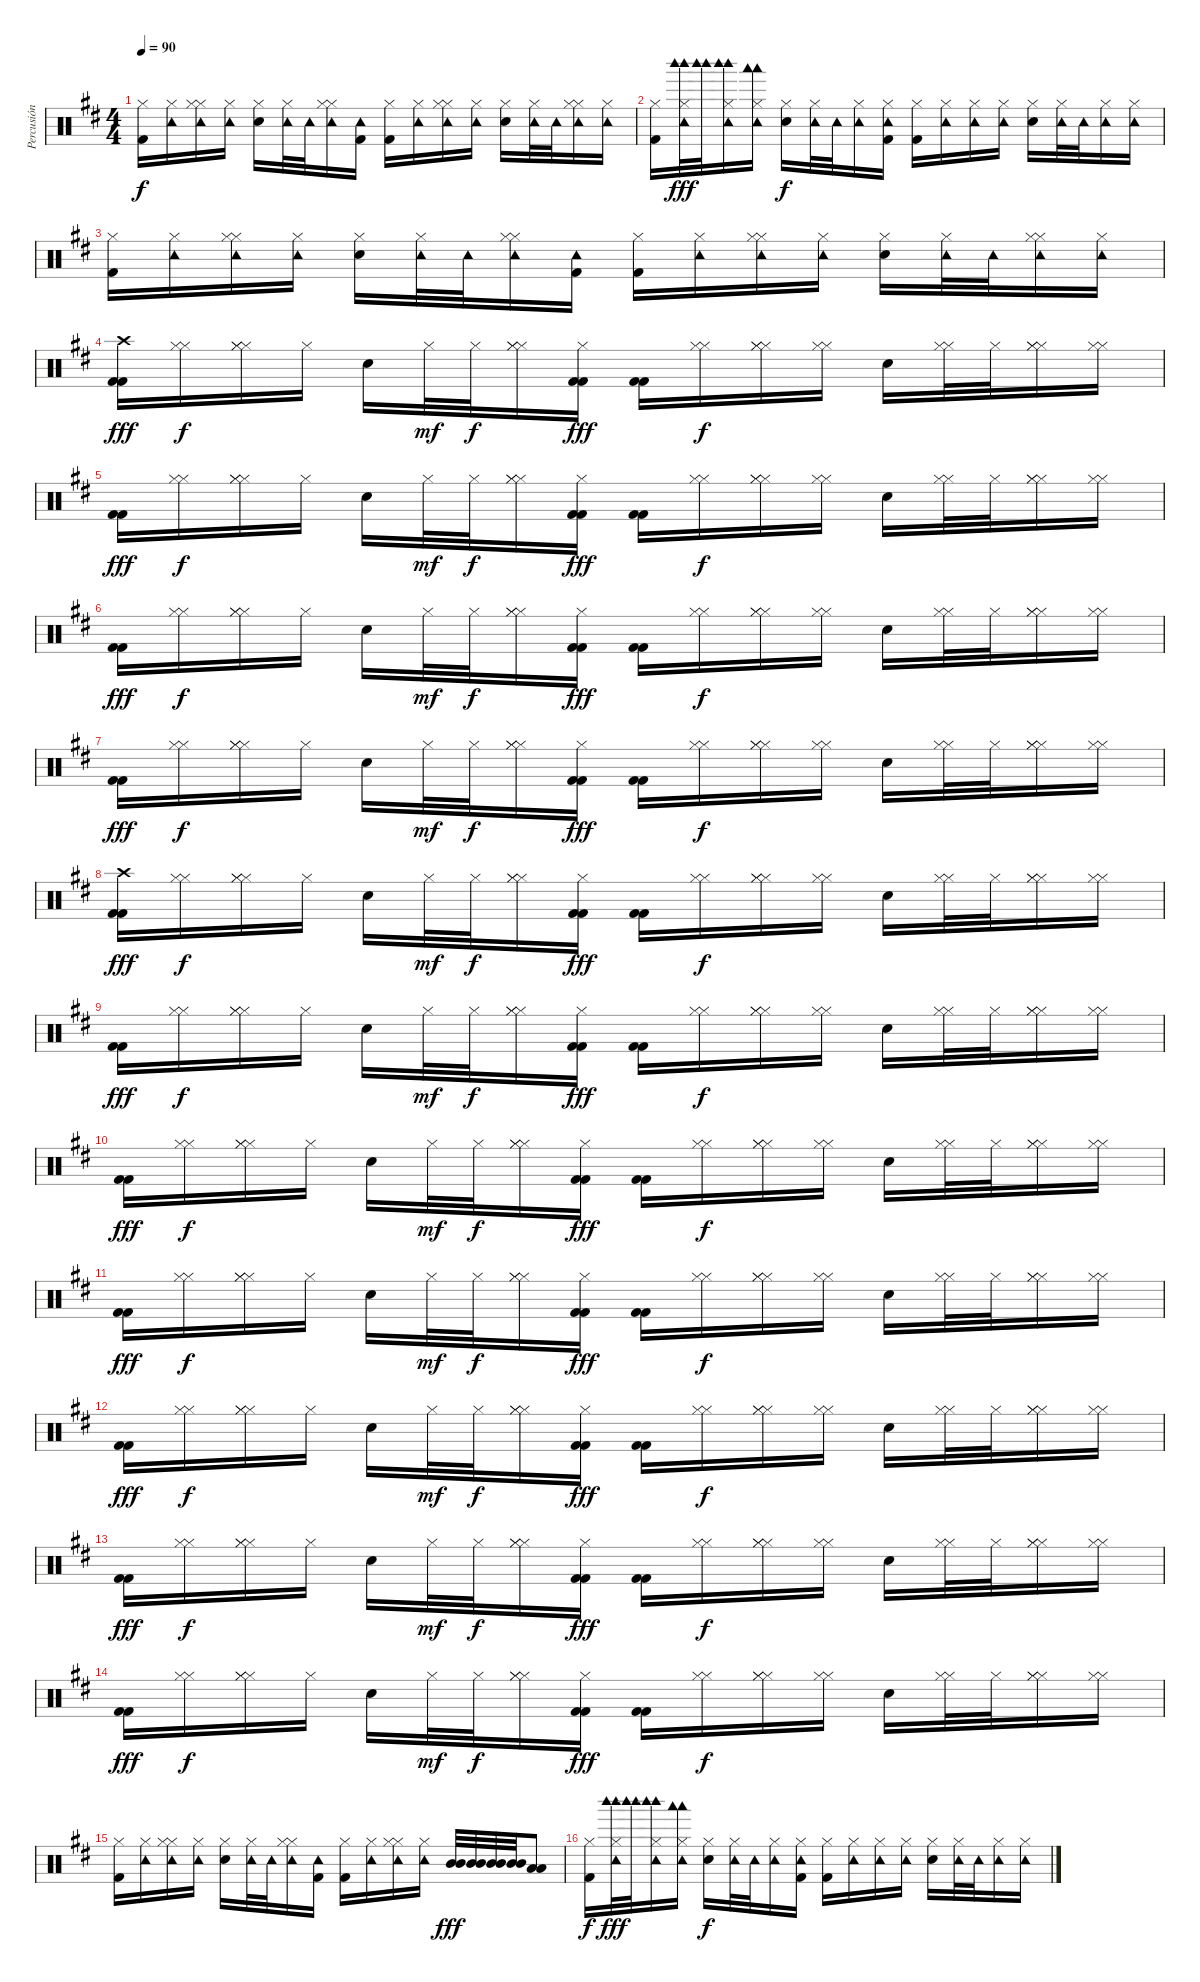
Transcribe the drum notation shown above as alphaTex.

\track ("Percusión" "Percusión") {instrument percussion}
\staff
\articulation defaults
\ts (4 4)
\tempo 90
\clef neutral
\ks bminor
("Kick (hit) 2" "Hi-Hat (closed)").16{dy f} ("Tambourine (hit)" "Hi-Hat (closed)").16 ("Hi-Hat (closed)" "Tambourine (hit)" "Hi-Hat (closed)").16 ("Tambourine (hit)" "Hi-Hat (closed)").16 ("Electric Snare (hit)" "Hi-Hat (closed)").16 ("Tambourine (hit)" "Hi-Hat (closed)").32 "Tambourine (hit)".32 ("Hi-Hat (closed)" "Tambourine (hit)" "Hi-Hat (closed)").16 ("Kick (hit) 2" "Tambourine (hit)").16 ("Kick (hit) 2" "Hi-Hat (closed)").16 ("Tambourine (hit)" "Hi-Hat (closed)").16 ("Hi-Hat (closed)" "Tambourine (hit)" "Hi-Hat (closed)").16 ("Tambourine (hit)" "Hi-Hat (closed)").16 ("Electric Snare (hit)" "Hi-Hat (closed)").16 ("Tambourine (hit)" "Hi-Hat (closed)").32 "Tambourine (hit)".32 ("Hi-Hat (closed)" "Tambourine (hit)" "Hi-Hat (closed)").16 ("Tambourine (hit)" "Hi-Hat (closed)").16 |
("Kick (hit) 2" "Hi-Hat (closed)").16 ("Hi-Hat (closed)" "Tambourine (hit)" "Woodblock high (hit)" "Woodblock high (hit)").32{dy fff} ("Woodblock high (hit)" "Woodblock high (hit)").32 ("Hi-Hat (closed)" "Tambourine (hit)" "Woodblock high (hit)" "Woodblock high (hit)").16 ("Hi-Hat (closed)" "Tambourine (hit)" "Woodblock low (hit)" "Woodblock low (hit)").16 ("Electric Snare (hit)" "Hi-Hat (closed)").16{dy f} ("Hi-Hat (closed)" "Tambourine (hit)").32 "Tambourine (hit)".32 ("Hi-Hat (closed)" "Tambourine (hit)").16 ("Kick (hit) 2" "Hi-Hat (closed)" "Tambourine (hit)").16 ("Kick (hit) 2" "Hi-Hat (closed)").16 ("Hi-Hat (closed)" "Tambourine (hit)").16 ("Hi-Hat (closed)" "Tambourine (hit)").16 ("Hi-Hat (closed)" "Tambourine (hit)").16 ("Electric Snare (hit)" "Hi-Hat (closed)").16 ("Hi-Hat (closed)" "Tambourine (hit)").32 "Tambourine (hit)".32 ("Hi-Hat (closed)" "Tambourine (hit)").16 ("Hi-Hat (closed)" "Tambourine (hit)").16 |
("Kick (hit) 2" "Hi-Hat (closed)").16 ("Tambourine (hit)" "Hi-Hat (closed)").16 ("Hi-Hat (closed)" "Tambourine (hit)" "Hi-Hat (closed)").16 ("Tambourine (hit)" "Hi-Hat (closed)").16 ("Electric Snare (hit)" "Hi-Hat (closed)").16 ("Tambourine (hit)" "Hi-Hat (closed)").32 "Tambourine (hit)".32 ("Hi-Hat (closed)" "Tambourine (hit)" "Hi-Hat (closed)").16 ("Kick (hit) 2" "Tambourine (hit)").16 ("Kick (hit) 2" "Hi-Hat (closed)").16 ("Tambourine (hit)" "Hi-Hat (closed)").16 ("Hi-Hat (closed)" "Tambourine (hit)" "Hi-Hat (closed)").16 ("Tambourine (hit)" "Hi-Hat (closed)").16 ("Electric Snare (hit)" "Hi-Hat (closed)").16 ("Tambourine (hit)" "Hi-Hat (closed)").32 "Tambourine (hit)".32 ("Hi-Hat (closed)" "Tambourine (hit)" "Hi-Hat (closed)").16 ("Tambourine (hit)" "Hi-Hat (closed)").16 |
("Kick (hit) 2" "Kick (hit) 2" "Crash high (hit)").16{dy fff} ("Hi-Hat (closed)" "Hi-Hat (closed)").16{dy f} ("Hi-Hat (closed)" "Hi-Hat (closed)" "Hi-Hat (closed)").16 "Hi-Hat (closed)".16 "Electric Snare (hit)".16 "Hi-Hat (closed)".32{dy mf} "Hi-Hat (closed)".32{dy f} ("Hi-Hat (closed)" "Hi-Hat (closed)" "Hi-Hat (closed)").16 ("Kick (hit) 2" "Kick (hit) 2" "Hi-Hat (closed)").16{dy fff} ("Kick (hit) 2" "Kick (hit) 2").16 ("Hi-Hat (closed)" "Hi-Hat (closed)").16{dy f} ("Hi-Hat (closed)" "Hi-Hat (closed)" "Hi-Hat (closed)").16 ("Hi-Hat (closed)" "Hi-Hat (closed)").16 "Electric Snare (hit)".16 ("Hi-Hat (closed)" "Hi-Hat (closed)").32 "Hi-Hat (closed)".32 ("Hi-Hat (closed)" "Hi-Hat (closed)" "Hi-Hat (closed)").16 ("Hi-Hat (closed)" "Hi-Hat (closed)").16 |
("Kick (hit) 2" "Kick (hit) 2").16{dy fff} ("Hi-Hat (closed)" "Hi-Hat (closed)").16{dy f} ("Hi-Hat (closed)" "Hi-Hat (closed)" "Hi-Hat (closed)").16 "Hi-Hat (closed)".16 "Electric Snare (hit)".16 "Hi-Hat (closed)".32{dy mf} "Hi-Hat (closed)".32{dy f} ("Hi-Hat (closed)" "Hi-Hat (closed)" "Hi-Hat (closed)").16 ("Kick (hit) 2" "Kick (hit) 2" "Hi-Hat (closed)").16{dy fff} ("Kick (hit) 2" "Kick (hit) 2").16 ("Hi-Hat (closed)" "Hi-Hat (closed)").16{dy f} ("Hi-Hat (closed)" "Hi-Hat (closed)" "Hi-Hat (closed)").16 ("Hi-Hat (closed)" "Hi-Hat (closed)").16 "Electric Snare (hit)".16 ("Hi-Hat (closed)" "Hi-Hat (closed)").32 "Hi-Hat (closed)".32 ("Hi-Hat (closed)" "Hi-Hat (closed)" "Hi-Hat (closed)").16 ("Hi-Hat (closed)" "Hi-Hat (closed)").16 |
("Kick (hit) 2" "Kick (hit) 2").16{dy fff} ("Hi-Hat (closed)" "Hi-Hat (closed)").16{dy f} ("Hi-Hat (closed)" "Hi-Hat (closed)" "Hi-Hat (closed)").16 "Hi-Hat (closed)".16 "Electric Snare (hit)".16 "Hi-Hat (closed)".32{dy mf} "Hi-Hat (closed)".32{dy f} ("Hi-Hat (closed)" "Hi-Hat (closed)" "Hi-Hat (closed)").16 ("Kick (hit) 2" "Kick (hit) 2" "Hi-Hat (closed)").16{dy fff} ("Kick (hit) 2" "Kick (hit) 2").16 ("Hi-Hat (closed)" "Hi-Hat (closed)").16{dy f} ("Hi-Hat (closed)" "Hi-Hat (closed)" "Hi-Hat (closed)").16 ("Hi-Hat (closed)" "Hi-Hat (closed)").16 "Electric Snare (hit)".16 ("Hi-Hat (closed)" "Hi-Hat (closed)").32 "Hi-Hat (closed)".32 ("Hi-Hat (closed)" "Hi-Hat (closed)" "Hi-Hat (closed)").16 ("Hi-Hat (closed)" "Hi-Hat (closed)").16 |
("Kick (hit) 2" "Kick (hit) 2").16{dy fff} ("Hi-Hat (closed)" "Hi-Hat (closed)").16{dy f} ("Hi-Hat (closed)" "Hi-Hat (closed)" "Hi-Hat (closed)").16 "Hi-Hat (closed)".16 "Electric Snare (hit)".16 "Hi-Hat (closed)".32{dy mf} "Hi-Hat (closed)".32{dy f} ("Hi-Hat (closed)" "Hi-Hat (closed)" "Hi-Hat (closed)").16 ("Kick (hit) 2" "Kick (hit) 2" "Hi-Hat (closed)").16{dy fff} ("Kick (hit) 2" "Kick (hit) 2").16 ("Hi-Hat (closed)" "Hi-Hat (closed)").16{dy f} ("Hi-Hat (closed)" "Hi-Hat (closed)" "Hi-Hat (closed)").16 ("Hi-Hat (closed)" "Hi-Hat (closed)").16 "Electric Snare (hit)".16 ("Hi-Hat (closed)" "Hi-Hat (closed)").32 "Hi-Hat (closed)".32 ("Hi-Hat (closed)" "Hi-Hat (closed)" "Hi-Hat (closed)").16 ("Hi-Hat (closed)" "Hi-Hat (closed)").16 |
("Kick (hit) 2" "Kick (hit) 2" "Crash high (hit)").16{dy fff} ("Hi-Hat (closed)" "Hi-Hat (closed)").16{dy f} ("Hi-Hat (closed)" "Hi-Hat (closed)" "Hi-Hat (closed)").16 "Hi-Hat (closed)".16 "Electric Snare (hit)".16 "Hi-Hat (closed)".32{dy mf} "Hi-Hat (closed)".32{dy f} ("Hi-Hat (closed)" "Hi-Hat (closed)" "Hi-Hat (closed)").16 ("Kick (hit) 2" "Kick (hit) 2" "Hi-Hat (closed)").16{dy fff} ("Kick (hit) 2" "Kick (hit) 2").16 ("Hi-Hat (closed)" "Hi-Hat (closed)").16{dy f} ("Hi-Hat (closed)" "Hi-Hat (closed)" "Hi-Hat (closed)").16 ("Hi-Hat (closed)" "Hi-Hat (closed)").16 "Electric Snare (hit)".16 ("Hi-Hat (closed)" "Hi-Hat (closed)").32 "Hi-Hat (closed)".32 ("Hi-Hat (closed)" "Hi-Hat (closed)" "Hi-Hat (closed)").16 ("Hi-Hat (closed)" "Hi-Hat (closed)").16 |
("Kick (hit) 2" "Kick (hit) 2").16{dy fff} ("Hi-Hat (closed)" "Hi-Hat (closed)").16{dy f} ("Hi-Hat (closed)" "Hi-Hat (closed)" "Hi-Hat (closed)").16 "Hi-Hat (closed)".16 "Electric Snare (hit)".16 "Hi-Hat (closed)".32{dy mf} "Hi-Hat (closed)".32{dy f} ("Hi-Hat (closed)" "Hi-Hat (closed)" "Hi-Hat (closed)").16 ("Kick (hit) 2" "Kick (hit) 2" "Hi-Hat (closed)").16{dy fff} ("Kick (hit) 2" "Kick (hit) 2").16 ("Hi-Hat (closed)" "Hi-Hat (closed)").16{dy f} ("Hi-Hat (closed)" "Hi-Hat (closed)" "Hi-Hat (closed)").16 ("Hi-Hat (closed)" "Hi-Hat (closed)").16 "Electric Snare (hit)".16 ("Hi-Hat (closed)" "Hi-Hat (closed)").32 "Hi-Hat (closed)".32 ("Hi-Hat (closed)" "Hi-Hat (closed)" "Hi-Hat (closed)").16 ("Hi-Hat (closed)" "Hi-Hat (closed)").16 |
("Kick (hit) 2" "Kick (hit) 2").16{dy fff} ("Hi-Hat (closed)" "Hi-Hat (closed)").16{dy f} ("Hi-Hat (closed)" "Hi-Hat (closed)" "Hi-Hat (closed)").16 "Hi-Hat (closed)".16 "Electric Snare (hit)".16 "Hi-Hat (closed)".32{dy mf} "Hi-Hat (closed)".32{dy f} ("Hi-Hat (closed)" "Hi-Hat (closed)" "Hi-Hat (closed)").16 ("Kick (hit) 2" "Kick (hit) 2" "Hi-Hat (closed)").16{dy fff} ("Kick (hit) 2" "Kick (hit) 2").16 ("Hi-Hat (closed)" "Hi-Hat (closed)").16{dy f} ("Hi-Hat (closed)" "Hi-Hat (closed)" "Hi-Hat (closed)").16 ("Hi-Hat (closed)" "Hi-Hat (closed)").16 "Electric Snare (hit)".16 ("Hi-Hat (closed)" "Hi-Hat (closed)").32 "Hi-Hat (closed)".32 ("Hi-Hat (closed)" "Hi-Hat (closed)" "Hi-Hat (closed)").16 ("Hi-Hat (closed)" "Hi-Hat (closed)").16 |
("Kick (hit) 2" "Kick (hit) 2").16{dy fff} ("Hi-Hat (closed)" "Hi-Hat (closed)").16{dy f} ("Hi-Hat (closed)" "Hi-Hat (closed)" "Hi-Hat (closed)").16 "Hi-Hat (closed)".16 "Electric Snare (hit)".16 "Hi-Hat (closed)".32{dy mf} "Hi-Hat (closed)".32{dy f} ("Hi-Hat (closed)" "Hi-Hat (closed)" "Hi-Hat (closed)").16 ("Kick (hit) 2" "Kick (hit) 2" "Hi-Hat (closed)").16{dy fff} ("Kick (hit) 2" "Kick (hit) 2").16 ("Hi-Hat (closed)" "Hi-Hat (closed)").16{dy f} ("Hi-Hat (closed)" "Hi-Hat (closed)" "Hi-Hat (closed)").16 ("Hi-Hat (closed)" "Hi-Hat (closed)").16 "Electric Snare (hit)".16 ("Hi-Hat (closed)" "Hi-Hat (closed)").32 "Hi-Hat (closed)".32 ("Hi-Hat (closed)" "Hi-Hat (closed)" "Hi-Hat (closed)").16 ("Hi-Hat (closed)" "Hi-Hat (closed)").16 |
("Kick (hit) 2" "Kick (hit) 2").16{dy fff} ("Hi-Hat (closed)" "Hi-Hat (closed)").16{dy f} ("Hi-Hat (closed)" "Hi-Hat (closed)" "Hi-Hat (closed)").16 "Hi-Hat (closed)".16 "Electric Snare (hit)".16 "Hi-Hat (closed)".32{dy mf} "Hi-Hat (closed)".32{dy f} ("Hi-Hat (closed)" "Hi-Hat (closed)" "Hi-Hat (closed)").16 ("Kick (hit) 2" "Kick (hit) 2" "Hi-Hat (closed)").16{dy fff} ("Kick (hit) 2" "Kick (hit) 2").16 ("Hi-Hat (closed)" "Hi-Hat (closed)").16{dy f} ("Hi-Hat (closed)" "Hi-Hat (closed)" "Hi-Hat (closed)").16 ("Hi-Hat (closed)" "Hi-Hat (closed)").16 "Electric Snare (hit)".16 ("Hi-Hat (closed)" "Hi-Hat (closed)").32 "Hi-Hat (closed)".32 ("Hi-Hat (closed)" "Hi-Hat (closed)" "Hi-Hat (closed)").16 ("Hi-Hat (closed)" "Hi-Hat (closed)").16 |
("Kick (hit) 2" "Kick (hit) 2").16{dy fff} ("Hi-Hat (closed)" "Hi-Hat (closed)").16{dy f} ("Hi-Hat (closed)" "Hi-Hat (closed)" "Hi-Hat (closed)").16 "Hi-Hat (closed)".16 "Electric Snare (hit)".16 "Hi-Hat (closed)".32{dy mf} "Hi-Hat (closed)".32{dy f} ("Hi-Hat (closed)" "Hi-Hat (closed)" "Hi-Hat (closed)").16 ("Kick (hit) 2" "Kick (hit) 2" "Hi-Hat (closed)").16{dy fff} ("Kick (hit) 2" "Kick (hit) 2").16 ("Hi-Hat (closed)" "Hi-Hat (closed)").16{dy f} ("Hi-Hat (closed)" "Hi-Hat (closed)" "Hi-Hat (closed)").16 ("Hi-Hat (closed)" "Hi-Hat (closed)").16 "Electric Snare (hit)".16 ("Hi-Hat (closed)" "Hi-Hat (closed)").32 "Hi-Hat (closed)".32 ("Hi-Hat (closed)" "Hi-Hat (closed)" "Hi-Hat (closed)").16 ("Hi-Hat (closed)" "Hi-Hat (closed)").16 |
("Kick (hit) 2" "Kick (hit) 2").16{dy fff} ("Hi-Hat (closed)" "Hi-Hat (closed)").16{dy f} ("Hi-Hat (closed)" "Hi-Hat (closed)" "Hi-Hat (closed)").16 "Hi-Hat (closed)".16 "Electric Snare (hit)".16 "Hi-Hat (closed)".32{dy mf} "Hi-Hat (closed)".32{dy f} ("Hi-Hat (closed)" "Hi-Hat (closed)" "Hi-Hat (closed)").16 ("Kick (hit) 2" "Kick (hit) 2" "Hi-Hat (closed)").16{dy fff} ("Kick (hit) 2" "Kick (hit) 2").16 ("Hi-Hat (closed)" "Hi-Hat (closed)").16{dy f} ("Hi-Hat (closed)" "Hi-Hat (closed)" "Hi-Hat (closed)").16 ("Hi-Hat (closed)" "Hi-Hat (closed)").16 "Electric Snare (hit)".16 ("Hi-Hat (closed)" "Hi-Hat (closed)").32 "Hi-Hat (closed)".32 ("Hi-Hat (closed)" "Hi-Hat (closed)" "Hi-Hat (closed)").16 ("Hi-Hat (closed)" "Hi-Hat (closed)").16 |
("Kick (hit) 2" "Hi-Hat (closed)").16 ("Tambourine (hit)" "Hi-Hat (closed)").16 ("Hi-Hat (closed)" "Tambourine (hit)" "Hi-Hat (closed)").16 ("Tambourine (hit)" "Hi-Hat (closed)").16 ("Electric Snare (hit)" "Hi-Hat (closed)").16 ("Tambourine (hit)" "Hi-Hat (closed)").32 "Tambourine (hit)".32 ("Hi-Hat (closed)" "Tambourine (hit)" "Hi-Hat (closed)").16 ("Kick (hit) 2" "Tambourine (hit)").16 ("Kick (hit) 2" "Hi-Hat (closed)").16 ("Tambourine (hit)" "Hi-Hat (closed)").16 ("Hi-Hat (closed)" "Tambourine (hit)" "Hi-Hat (closed)").16 ("Tambourine (hit)" "Hi-Hat (closed)").16 ("Mid Tom (hit)" "Mid Tom (hit)").32{dy fff} ("Mid Tom (hit)" "Mid Tom (hit)").32 ("Mid Tom (hit)" "Mid Tom (hit)").32 ("Mid Tom (hit)" "Mid Tom (hit)").32 ("Low Tom (hit)" "Low Tom (hit)").8 |
("Kick (hit) 2" "Hi-Hat (closed)").16{dy f} ("Hi-Hat (closed)" "Tambourine (hit)" "Woodblock high (hit)" "Woodblock high (hit)").32{dy fff} ("Woodblock high (hit)" "Woodblock high (hit)").32 ("Hi-Hat (closed)" "Tambourine (hit)" "Woodblock high (hit)" "Woodblock high (hit)").16 ("Hi-Hat (closed)" "Tambourine (hit)" "Woodblock low (hit)" "Woodblock low (hit)").16 ("Electric Snare (hit)" "Hi-Hat (closed)").16{dy f} ("Hi-Hat (closed)" "Tambourine (hit)").32 "Tambourine (hit)".32 ("Hi-Hat (closed)" "Tambourine (hit)").16 ("Kick (hit) 2" "Hi-Hat (closed)" "Tambourine (hit)").16 ("Kick (hit) 2" "Hi-Hat (closed)").16 ("Hi-Hat (closed)" "Tambourine (hit)").16 ("Hi-Hat (closed)" "Tambourine (hit)").16 ("Hi-Hat (closed)" "Tambourine (hit)").16 ("Electric Snare (hit)" "Hi-Hat (closed)").16 ("Hi-Hat (closed)" "Tambourine (hit)").32 "Tambourine (hit)".32 ("Hi-Hat (closed)" "Tambourine (hit)").16 ("Hi-Hat (closed)" "Tambourine (hit)").16
